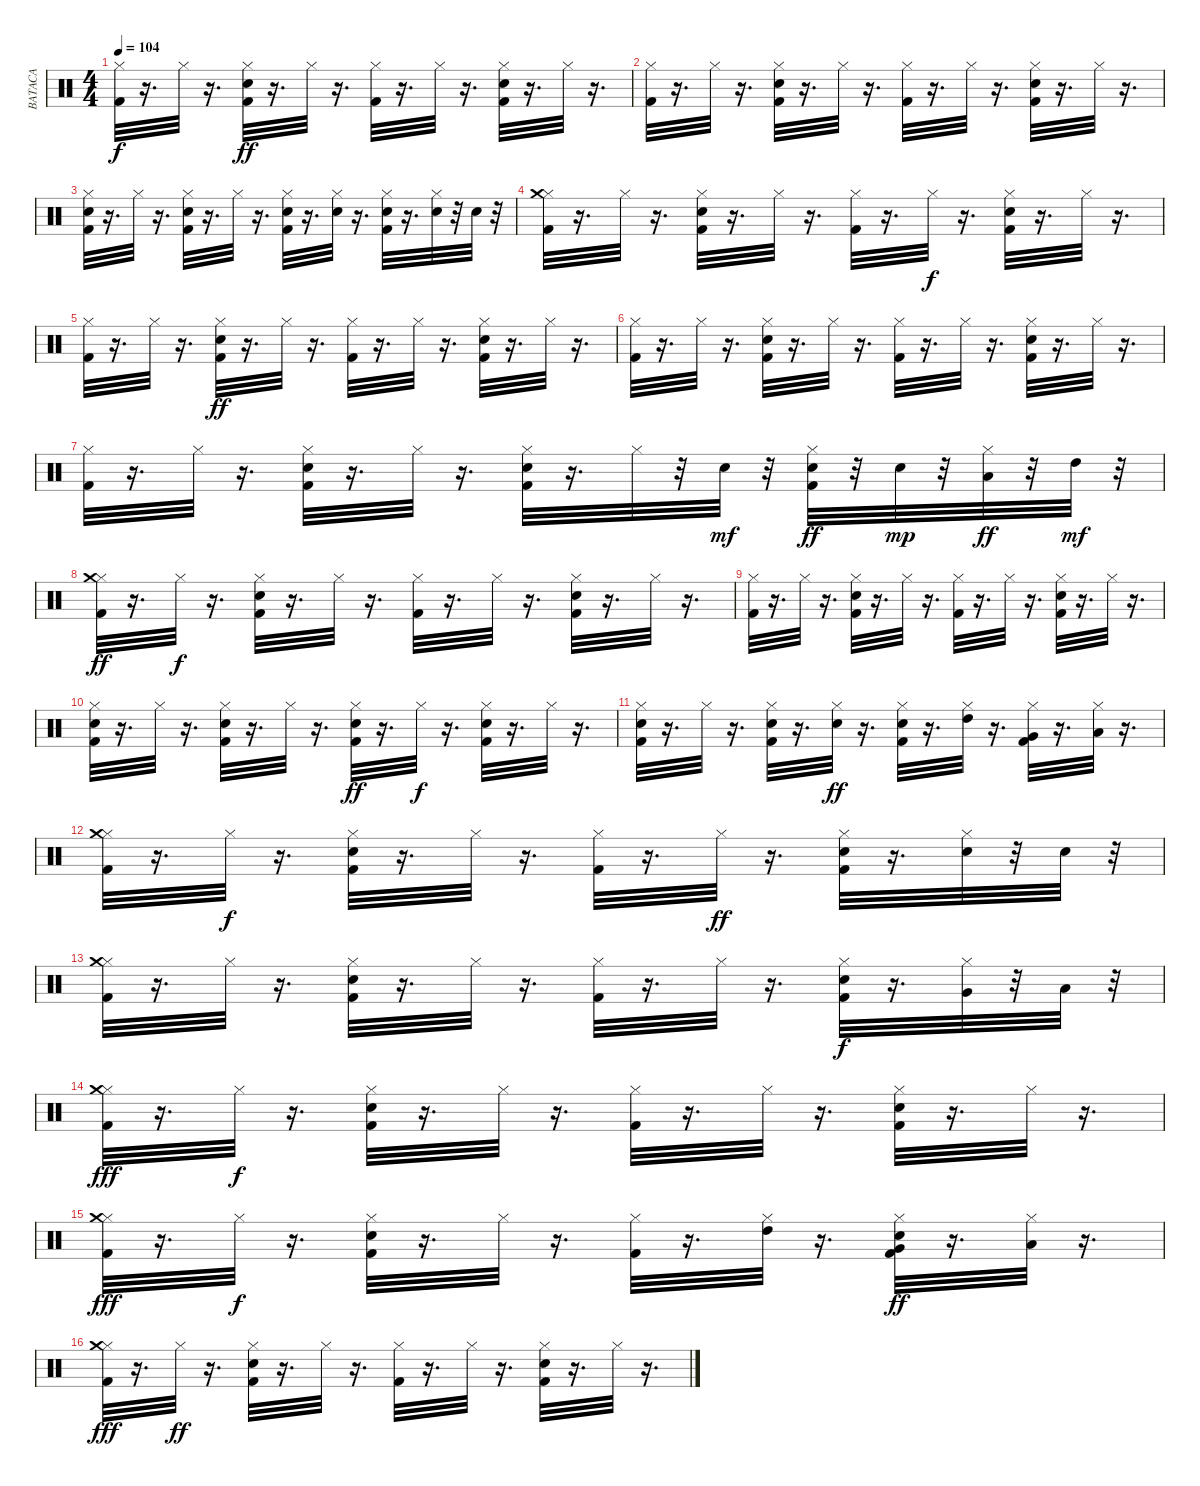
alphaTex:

\track ("BATACA" "BATACA") {instrument percussion}
\staff {score}
\articulation defaults
\ts (4 4)
\tempo 104
\clef neutral
\ks c
("Hi-Hat (closed)" "Kick (hit) 2").32{dy f} r.16{d} "Hi-Hat (closed)".32 r.16{d} ("Hi-Hat (closed)" "Kick (hit) 2" "Electric Snare (hit)").32{dy ff} r.16{d} "Hi-Hat (closed)".32 r.16{d} ("Hi-Hat (closed)" "Kick (hit) 2").32 r.16{d} "Hi-Hat (closed)".32 r.16{d} ("Hi-Hat (closed)" "Kick (hit) 2" "Electric Snare (hit)").32 r.16{d} "Hi-Hat (closed)".32 r.16{d} |
("Hi-Hat (closed)" "Kick (hit) 2").32 r.16{d} "Hi-Hat (closed)".32 r.16{d} ("Hi-Hat (closed)" "Kick (hit) 2" "Electric Snare (hit)").32 r.16{d} "Hi-Hat (closed)".32 r.16{d} ("Hi-Hat (closed)" "Kick (hit) 2").32 r.16{d} "Hi-Hat (closed)".32 r.16{d} ("Hi-Hat (closed)" "Kick (hit) 2" "Electric Snare (hit)").32 r.16{d} "Hi-Hat (closed)".32 r.16{d} |
("Hi-Hat (closed)" "Kick (hit) 2" "Electric Snare (hit)").32 r.16{d} "Hi-Hat (closed)".32 r.16{d} ("Hi-Hat (closed)" "Kick (hit) 2" "Electric Snare (hit)").32 r.16{d} "Hi-Hat (closed)".32 r.16{d} ("Hi-Hat (closed)" "Kick (hit) 2" "Electric Snare (hit)").32 r.16{d} ("Hi-Hat (closed)" "Electric Snare (hit)").32 r.16{d} ("Hi-Hat (closed)" "Kick (hit) 2" "Electric Snare (hit)").32 r.16{d} ("Hi-Hat (closed)" "Electric Snare (hit)").32 r.32 "Electric Snare (hit)".32 r.32 |
("Hi-Hat (closed)" "Kick (hit) 2" "Crash medium (hit)").32 r.16{d} "Hi-Hat (closed)".32 r.16{d} ("Hi-Hat (closed)" "Kick (hit) 2" "Electric Snare (hit)").32 r.16{d} "Hi-Hat (closed)".32 r.16{d} ("Hi-Hat (closed)" "Kick (hit) 2").32 r.16{d} "Hi-Hat (closed)".32{dy f} r.16{d} ("Hi-Hat (closed)" "Kick (hit) 2" "Electric Snare (hit)").32 r.16{d} "Hi-Hat (closed)".32 r.16{d} |
("Hi-Hat (closed)" "Kick (hit) 2").32 r.16{d} "Hi-Hat (closed)".32 r.16{d} ("Hi-Hat (closed)" "Kick (hit) 2" "Electric Snare (hit)").32{dy ff} r.16{d} "Hi-Hat (closed)".32 r.16{d} ("Hi-Hat (closed)" "Kick (hit) 2").32 r.16{d} "Hi-Hat (closed)".32 r.16{d} ("Hi-Hat (closed)" "Kick (hit) 2" "Electric Snare (hit)").32 r.16{d} "Hi-Hat (closed)".32 r.16{d} |
("Hi-Hat (closed)" "Kick (hit) 2").32 r.16{d} "Hi-Hat (closed)".32 r.16{d} ("Hi-Hat (closed)" "Kick (hit) 2" "Electric Snare (hit)").32 r.16{d} "Hi-Hat (closed)".32 r.16{d} ("Hi-Hat (closed)" "Kick (hit) 2").32 r.16{d} "Hi-Hat (closed)".32 r.16{d} ("Hi-Hat (closed)" "Kick (hit) 2" "Electric Snare (hit)").32 r.16{d} "Hi-Hat (closed)".32 r.16{d} |
("Hi-Hat (closed)" "Kick (hit) 2").32 r.16{d} "Hi-Hat (closed)".32 r.16{d} ("Hi-Hat (closed)" "Kick (hit) 2" "Electric Snare (hit)").32 r.16{d} "Hi-Hat (closed)".32 r.16{d} ("Hi-Hat (closed)" "Kick (hit) 2" "Electric Snare (hit)").32 r.16{d} "Hi-Hat (closed)".32 r.32 "Electric Snare (hit)".32{dy mf} r.32 ("Hi-Hat (closed)" "Kick (hit) 2" "Electric Snare (hit)").32{dy ff} r.32 "Electric Snare (hit)".32{dy mp} r.32 ("Hi-Hat (closed)" "Low Floor Tom (hit)").32{dy ff} r.32 "High Tom (hit)".32{dy mf} r.32 |
("Hi-Hat (closed)" "Kick (hit) 2" "Crash medium (hit)").32{dy ff} r.16{d} "Hi-Hat (closed)".32{dy f} r.16{d} ("Hi-Hat (closed)" "Kick (hit) 2" "Electric Snare (hit)").32 r.16{d} "Hi-Hat (closed)".32 r.16{d} ("Hi-Hat (closed)" "Kick (hit) 2").32 r.16{d} "Hi-Hat (closed)".32 r.16{d} ("Hi-Hat (closed)" "Kick (hit) 2" "Electric Snare (hit)").32 r.16{d} "Hi-Hat (closed)".32 r.16{d} |
("Hi-Hat (closed)" "Kick (hit) 2").32 r.16{d} "Hi-Hat (closed)".32 r.16{d} ("Hi-Hat (closed)" "Kick (hit) 2" "Electric Snare (hit)").32 r.16{d} "Hi-Hat (closed)".32 r.16{d} ("Hi-Hat (closed)" "Kick (hit) 2").32 r.16{d} "Hi-Hat (closed)".32 r.16{d} ("Hi-Hat (closed)" "Kick (hit) 2" "Electric Snare (hit)").32 r.16{d} "Hi-Hat (closed)".32 r.16{d} |
("Hi-Hat (closed)" "Kick (hit) 2" "Electric Snare (hit)").32 r.16{d} "Hi-Hat (closed)".32 r.16{d} ("Hi-Hat (closed)" "Kick (hit) 2" "Electric Snare (hit)").32 r.16{d} "Hi-Hat (closed)".32 r.16{d} ("Hi-Hat (closed)" "Kick (hit) 2" "Electric Snare (hit)").32{dy ff} r.16{d} "Hi-Hat (closed)".32{dy f} r.16{d} ("Hi-Hat (closed)" "Kick (hit) 2" "Electric Snare (hit)").32 r.16{d} "Hi-Hat (closed)".32 r.16{d} |
("Hi-Hat (closed)" "Kick (hit) 2" "Electric Snare (hit)").32 r.16{d} "Hi-Hat (closed)".32 r.16{d} ("Hi-Hat (closed)" "Kick (hit) 2" "Electric Snare (hit)").32 r.16{d} ("Hi-Hat (closed)" "Electric Snare (hit)").32{dy ff} r.16{d} ("Hi-Hat (closed)" "Kick (hit) 2" "Electric Snare (hit)").32 r.16{d} ("Hi-Hat (closed)" "High Tom (hit)").32 r.16{d} ("Hi-Hat (closed)" "Kick (hit) 2" "Very Low Tom (hit)").32 r.16{d} ("Hi-Hat (closed)" "Low Floor Tom (hit)").32 r.16{d} |
("Hi-Hat (closed)" "Kick (hit) 2" "Crash medium (hit)").32 r.16{d} "Hi-Hat (closed)".32{dy f} r.16{d} ("Hi-Hat (closed)" "Kick (hit) 2" "Electric Snare (hit)").32 r.16{d} "Hi-Hat (closed)".32 r.16{d} ("Hi-Hat (closed)" "Kick (hit) 2").32 r.16{d} "Hi-Hat (closed)".32{dy ff} r.16{d} ("Hi-Hat (closed)" "Kick (hit) 2" "Electric Snare (hit)").32 r.16{d} ("Hi-Hat (closed)" "Electric Snare (hit)").32 r.32 "Electric Snare (hit)".32 r.32 |
("Hi-Hat (closed)" "Kick (hit) 2" "Crash medium (hit)").32 r.16{d} "Hi-Hat (closed)".32 r.16{d} ("Hi-Hat (closed)" "Kick (hit) 2" "Electric Snare (hit)").32 r.16{d} "Hi-Hat (closed)".32 r.16{d} ("Hi-Hat (closed)" "Kick (hit) 2").32 r.16{d} "Hi-Hat (closed)".32 r.16{d} ("Hi-Hat (closed)" "Kick (hit) 2" "Electric Snare (hit)").32{dy f} r.16{d} ("Hi-Hat (closed)" "Very Low Tom (hit)").32 r.32 "Low Floor Tom (hit)".32 r.32 |
("Hi-Hat (closed)" "Kick (hit) 2" "Crash medium (hit)").32{dy fff} r.16{d} "Hi-Hat (closed)".32{dy f} r.16{d} ("Hi-Hat (closed)" "Kick (hit) 2" "Electric Snare (hit)").32 r.16{d} "Hi-Hat (closed)".32 r.16{d} ("Hi-Hat (closed)" "Kick (hit) 2").32 r.16{d} "Hi-Hat (closed)".32 r.16{d} ("Hi-Hat (closed)" "Kick (hit) 2" "Electric Snare (hit)").32 r.16{d} "Hi-Hat (closed)".32 r.16{d} |
("Hi-Hat (closed)" "Kick (hit) 2" "Crash medium (hit)").32{dy fff} r.16{d} "Hi-Hat (closed)".32{dy f} r.16{d} ("Hi-Hat (closed)" "Kick (hit) 2" "Electric Snare (hit)").32 r.16{d} "Hi-Hat (closed)".32 r.16{d} ("Hi-Hat (closed)" "Kick (hit) 2").32 r.16{d} ("Hi-Hat (closed)" "High Tom (hit)").32 r.16{d} ("Hi-Hat (closed)" "Kick (hit) 2" "Electric Snare (hit)" "Very Low Tom (hit)").32{dy ff} r.16{d} ("Hi-Hat (closed)" "Low Floor Tom (hit)").32 r.16{d} |
("Hi-Hat (closed)" "Kick (hit) 2" "Crash medium (hit)").32{dy fff} r.16{d} "Hi-Hat (closed)".32{dy ff} r.16{d} ("Hi-Hat (closed)" "Kick (hit) 2" "Electric Snare (hit)").32 r.16{d} "Hi-Hat (closed)".32 r.16{d} ("Hi-Hat (closed)" "Kick (hit) 2").32 r.16{d} "Hi-Hat (closed)".32 r.16{d} ("Hi-Hat (closed)" "Kick (hit) 2" "Electric Snare (hit)").32 r.16{d} "Hi-Hat (closed)".32 r.16{d}
